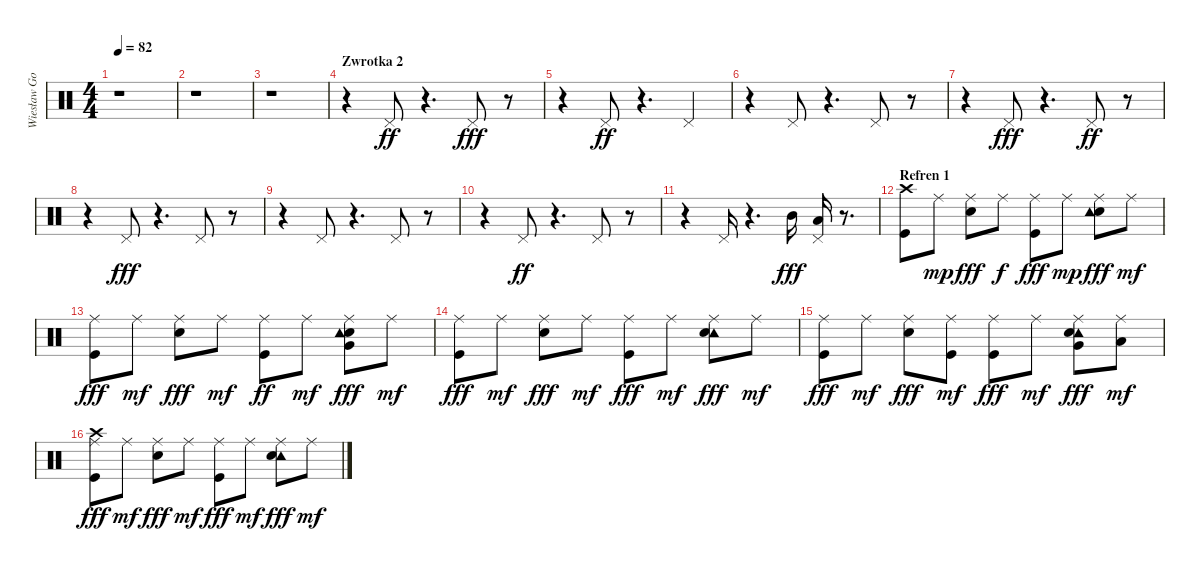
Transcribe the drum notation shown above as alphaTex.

\track ("Wiesław Gola" "Wiesław Go") {instrument percussion}
\staff {score}
\articulation defaults
\ts (4 4)
\tempo 82
\clef neutral
\ks c
r.1{dy ff} |
r.1 |
r.1 |
\section ("" "Zwrotka 2")
r.4 "Pedal Hi-Hat (hit)".8 r.4{d} "Pedal Hi-Hat (hit)".8{dy fff} r.8 |
r.4 "Pedal Hi-Hat (hit)".8{dy ff} r.4{d} "Pedal Hi-Hat (hit)".4 |
r.4 "Pedal Hi-Hat (hit)".8 r.4{d} "Pedal Hi-Hat (hit)".8 r.8 |
r.4 "Pedal Hi-Hat (hit)".8{dy fff} r.4{d} "Pedal Hi-Hat (hit)".8{dy ff} r.8 |
r.4 "Pedal Hi-Hat (hit)".8{dy fff} r.4{d} "Pedal Hi-Hat (hit)".8 r.8 |
r.4 "Pedal Hi-Hat (hit)".8 r.4{d} "Pedal Hi-Hat (hit)".8 r.8 |
r.4 "Pedal Hi-Hat (hit)".8{dy ff} r.4{d} "Pedal Hi-Hat (hit)".8 r.8 |
r.4 "Pedal Hi-Hat (hit)".16 r.4{d} "Mid Tom (hit)".16{dy fff} ("Low Tom (hit)" "Pedal Hi-Hat (hit)").16 r.8{d} |
\section ("" "Refren 1")
("Crash high (hit)" "Kick (hit)").8 "Ride (middle)".8{dy mp} ("Snare (hit) 2" "Ride (middle)").8{dy fff} "Ride (middle)".8{dy f} ("Kick (hit)" "Ride (middle)").8{dy fff} "Ride (middle)".8{dy mp} ("Snare (hit) 2" "Tambourine (hit)" "Ride (middle)").8{dy fff} "Ride (middle)".8{dy mf} |
("Kick (hit)" "Ride (middle)").8{dy fff} "Ride (middle)".8{dy mf} ("Snare (hit) 2" "Ride (middle)").8{dy fff} "Ride (middle)".8{dy mf} ("Kick (hit)" "Ride (middle)").8{dy ff} "Ride (middle)".8{dy mf} ("Snare (hit) 2" "Ride (middle)" "Very Low Tom (hit)" "Tambourine (hit)").8{dy fff} "Ride (middle)".8{dy mf} |
("Ride (middle)" "Kick (hit)").8{dy fff} "Ride (middle)".8{dy mf} ("Ride (middle)" "Snare (hit) 2").8{dy fff} "Ride (middle)".8{dy mf} ("Kick (hit)" "Ride (middle)").8{dy fff} "Ride (middle)".8{dy mf} ("Tambourine (hit)" "Snare (hit) 2" "Ride (middle)").8{dy fff} "Ride (middle)".8{dy mf} |
("Ride (middle)" "Kick (hit)").8{dy fff} "Ride (middle)".8{dy mf} ("Ride (middle)" "Snare (hit) 2").8{dy fff} ("Kick (hit)" "Ride (middle)").8{dy mf} ("Ride (middle)" "Kick (hit)").8{dy fff} "Ride (middle)".8{dy mf} ("Ride (middle)" "Very Low Tom (hit)" "Tambourine (hit)" "Snare (hit) 2").8{dy fff} ("Ride (middle)" "Low Floor Tom (hit)").8{dy mf} |
("Crash high (hit)" "Kick (hit)" "Ride (middle)").8{dy fff} "Ride (middle)".8{dy mf} ("Ride (middle)" "Snare (hit) 2").8{dy fff} "Ride (middle)".8{dy mf} ("Ride (middle)" "Kick (hit)").8{dy fff} "Ride (middle)".8{dy mf} ("Tambourine (hit)" "Snare (hit) 2" "Ride (middle)").8{dy fff} "Ride (middle)".8{dy mf}
